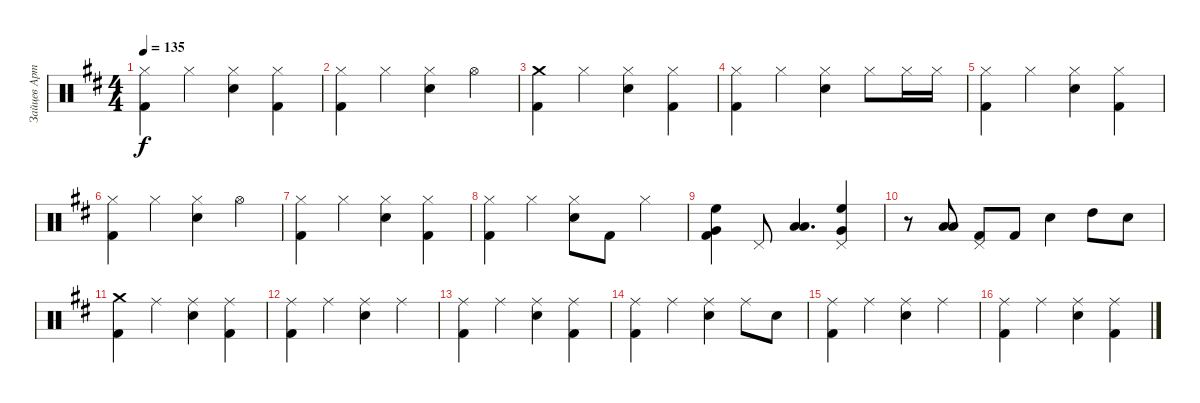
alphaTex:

\track ("Зайцев Артём" "Зайцев Арт") {instrument percussion}
\staff {score}
\articulation defaults
\ts (4 4)
\tempo 135
\clef neutral
\ks d
("Hi-Hat (closed)" "Kick (hit) 2").4{dy f} "Hi-Hat (closed)".4 ("Hi-Hat (closed)" "Snare (hit) 2").4 ("Hi-Hat (closed)" "Kick (hit) 2").4 |
("Hi-Hat (closed)" "Kick (hit) 2").4 "Hi-Hat (closed)".4 ("Hi-Hat (closed)" "Snare (hit) 2").4 "Hi-Hat (open)".4 |
("Kick (hit) 2" "Crash medium (hit)").4 "Hi-Hat (closed)".4 ("Hi-Hat (closed)" "Snare (hit) 2").4 ("Hi-Hat (closed)" "Kick (hit) 2").4 |
("Hi-Hat (closed)" "Kick (hit) 2").4 "Hi-Hat (closed)".4 ("Hi-Hat (closed)" "Snare (hit) 2").4 "Hi-Hat (closed)".8 "Hi-Hat (closed)".16 "Hi-Hat (closed)".16 |
("Hi-Hat (closed)" "Kick (hit) 2").4 "Hi-Hat (closed)".4 ("Hi-Hat (closed)" "Snare (hit) 2").4 ("Hi-Hat (closed)" "Kick (hit) 2").4 |
("Hi-Hat (closed)" "Kick (hit) 2").4 "Hi-Hat (closed)".4 ("Hi-Hat (closed)" "Snare (hit) 2").4 "Hi-Hat (open)".4 |
("Hi-Hat (closed)" "Kick (hit) 2").4 "Hi-Hat (closed)".4 ("Hi-Hat (closed)" "Snare (hit) 2").4 ("Hi-Hat (closed)" "Kick (hit) 2").4 |
("Hi-Hat (closed)" "Kick (hit) 2").4 "Hi-Hat (closed)".4 ("Hi-Hat (closed)" "Snare (hit) 2").8 "Kick (hit) 2".8 "Hi-Hat (closed)".4 |
("Kick (hit) 2" "Very Low Tom (hit)" "High Floor Tom (hit)").4 "Pedal Hi-Hat (hit)".8 ("Low Floor Tom (hit)" "Low Tom (hit)").4{d} ("Very Low Tom (hit)" "High Floor Tom (hit)" "Pedal Hi-Hat (hit)").4 |
r.8 ("Low Floor Tom (hit)" "Low Tom (hit)").8 ("Pedal Hi-Hat (hit)" "Kick (hit) 2").8 "Kick (hit) 2".8 "Snare (hit) 2".4 "High Tom (hit)".8 "Snare (hit) 2".8 |
("Kick (hit) 2" "Crash medium (hit)").4 "Ride (middle)".4 ("Ride (middle)" "Snare (hit) 2").4 ("Ride (middle)" "Kick (hit) 2").4 |
("Ride (middle)" "Kick (hit) 2").4 "Ride (middle)".4 ("Ride (middle)" "Snare (hit) 2").4 "Ride (middle)".4 |
("Kick (hit) 2" "Ride (middle)").4 "Ride (middle)".4 ("Ride (middle)" "Snare (hit) 2").4 ("Ride (middle)" "Kick (hit) 2").4 |
("Kick (hit) 2" "Ride (middle)").4 "Ride (middle)".4 ("Ride (middle)" "Snare (hit) 2").4 "Ride (middle)".8 "Snare (hit) 2".8 |
("Ride (middle)" "Kick (hit) 2").4 "Ride (middle)".4 ("Ride (middle)" "Snare (hit) 2").4 "Ride (middle)".4 |
("Kick (hit) 2" "Ride (middle)").4 "Ride (middle)".4 ("Ride (middle)" "Snare (hit) 2").4 ("Ride (middle)" "Kick (hit) 2").4
